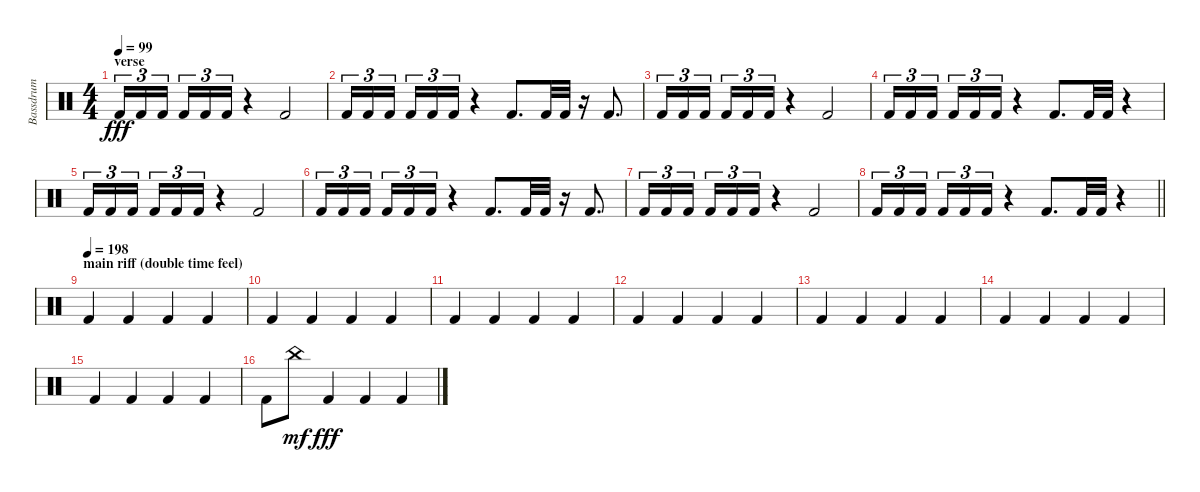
\track ("Bassdrum" "Bassdrum") {instrument percussion}
\staff {score}
\articulation defaults
\ts (4 4)
\section ("" "verse")
\tempo 99
\clef neutral
\ks c "Kick (hit) 2".16{tu (3 2) dy fff} "Kick (hit) 2".16{tu (3 2)} "Kick (hit) 2".16{tu (3 2) beam splitsecondary} "Kick (hit) 2".16{tu (3 2)} "Kick (hit) 2".16{tu (3 2)} "Kick (hit) 2".16{tu (3 2)}
r.4 "Kick (hit) 2".2 |
"Kick (hit) 2".16{tu (3 2)} "Kick (hit) 2".16{tu (3 2)} "Kick (hit) 2".16{tu (3 2) beam splitsecondary} "Kick (hit) 2".16{tu (3 2)} "Kick (hit) 2".16{tu (3 2)} "Kick (hit) 2".16{tu (3 2)} r.4 "Kick (hit) 2".8{d} "Kick (hit) 2".32 "Kick (hit) 2".32 r.16 "Kick (hit) 2".8{d} |
"Kick (hit) 2".16{tu (3 2)} "Kick (hit) 2".16{tu (3 2)} "Kick (hit) 2".16{tu (3 2) beam splitsecondary} "Kick (hit) 2".16{tu (3 2)} "Kick (hit) 2".16{tu (3 2)} "Kick (hit) 2".16{tu (3 2)} r.4 "Kick (hit) 2".2 |
"Kick (hit) 2".16{tu (3 2)} "Kick (hit) 2".16{tu (3 2)} "Kick (hit) 2".16{tu (3 2) beam splitsecondary} "Kick (hit) 2".16{tu (3 2)} "Kick (hit) 2".16{tu (3 2)} "Kick (hit) 2".16{tu (3 2)} r.4 "Kick (hit) 2".8{d} "Kick (hit) 2".32 "Kick (hit) 2".32 r.4 |
"Kick (hit) 2".16{tu (3 2)} "Kick (hit) 2".16{tu (3 2)} "Kick (hit) 2".16{tu (3 2) beam splitsecondary} "Kick (hit) 2".16{tu (3 2)} "Kick (hit) 2".16{tu (3 2)} "Kick (hit) 2".16{tu (3 2)} r.4 "Kick (hit) 2".2 |
"Kick (hit) 2".16{tu (3 2)} "Kick (hit) 2".16{tu (3 2)} "Kick (hit) 2".16{tu (3 2) beam splitsecondary} "Kick (hit) 2".16{tu (3 2)} "Kick (hit) 2".16{tu (3 2)} "Kick (hit) 2".16{tu (3 2)} r.4 "Kick (hit) 2".8{d} "Kick (hit) 2".32 "Kick (hit) 2".32 r.16 "Kick (hit) 2".8{d} |
"Kick (hit) 2".16{tu (3 2)} "Kick (hit) 2".16{tu (3 2)} "Kick (hit) 2".16{tu (3 2) beam splitsecondary} "Kick (hit) 2".16{tu (3 2)} "Kick (hit) 2".16{tu (3 2)} "Kick (hit) 2".16{tu (3 2)} r.4 "Kick (hit) 2".2 |
\barLineRight lightlight "Kick (hit) 2".16{tu (3 2)} "Kick (hit) 2".16{tu (3 2)} "Kick (hit) 2".16{tu (3 2) beam splitsecondary} "Kick (hit) 2".16{tu (3 2)} "Kick (hit) 2".16{tu (3 2)} "Kick (hit) 2".16{tu (3 2)}
r.4 "Kick (hit) 2".8{d} "Kick (hit) 2".32 "Kick (hit) 2".32 r.4 |
\section ("" "main riff (double time feel)")
\tempo (198)
"Kick (hit) 2".4 "Kick (hit) 2".4 "Kick (hit) 2".4 "Kick (hit) 2".4 |
"Kick (hit) 2".4 "Kick (hit) 2".4 "Kick (hit) 2".4 "Kick (hit) 2".4 |
"Kick (hit) 2".4 "Kick (hit) 2".4 "Kick (hit) 2".4 "Kick (hit) 2".4 |
"Kick (hit) 2".4 "Kick (hit) 2".4 "Kick (hit) 2".4 "Kick (hit) 2".4 |
"Kick (hit) 2".4 "Kick (hit) 2".4 "Kick (hit) 2".4 "Kick (hit) 2".4 |
"Kick (hit) 2".4 "Kick (hit) 2".4 "Kick (hit) 2".4 "Kick (hit) 2".4 |
"Kick (hit) 2".4 "Kick (hit) 2".4 "Kick (hit) 2".4 "Kick (hit) 2".4 |
"Kick (hit) 2".8 "China (hit)".8{dy mf} "Kick (hit) 2".4{dy fff} "Kick (hit) 2".4 "Kick (hit) 2".4
